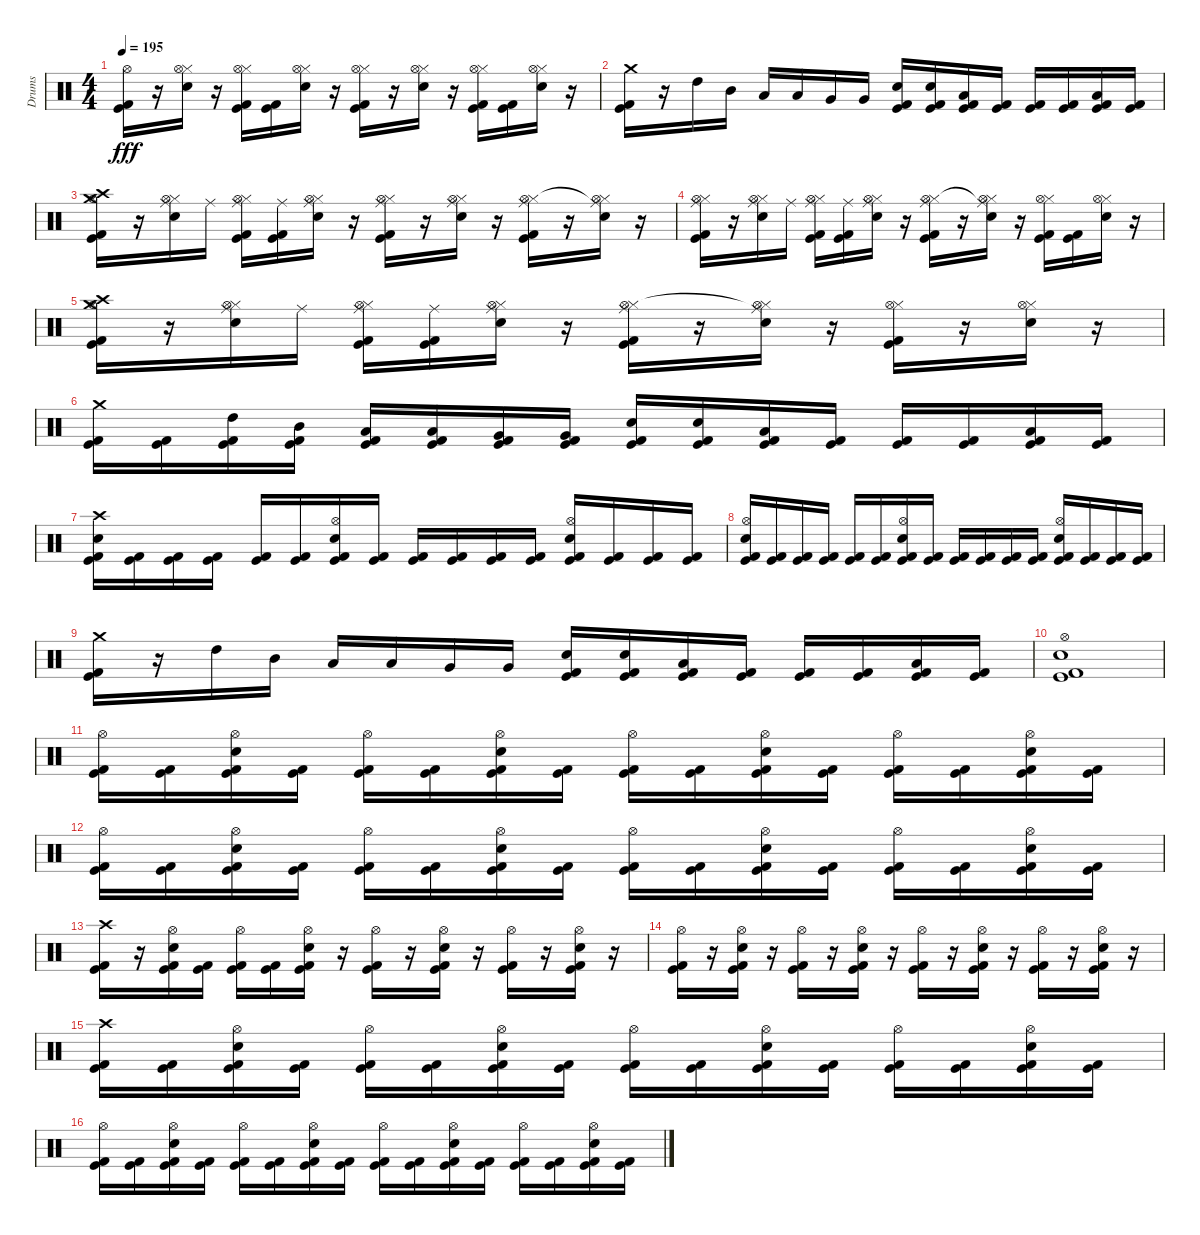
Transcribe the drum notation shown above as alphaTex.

\track ("Drums" "Drums") {instrument percussion}
\staff {score}
\articulation defaults
\ts (4 4)
\tempo 195
\clef neutral
\ks c
("Kick (hit) 2" "Kick (hit)" "Hi-Hat (open)").16{dy fff} r.16 ("Snare (hit) 2" "Hi-Hat (closed)" "Hi-Hat (open)").16 r.16 ("Kick (hit) 2" "Kick (hit)" "Hi-Hat (closed)" "Hi-Hat (open)").16 ("Kick (hit) 2" "Kick (hit)").16 ("Snare (hit) 2" "Hi-Hat (closed)" "Hi-Hat (open)").16 r.16 ("Kick (hit) 2" "Kick (hit)" "Hi-Hat (closed)" "Hi-Hat (open)").16 r.16 ("Snare (hit) 2" "Hi-Hat (closed)" "Hi-Hat (open)").16 r.16 ("Kick (hit) 2" "Kick (hit)" "Hi-Hat (closed)" "Hi-Hat (open)").16 ("Kick (hit) 2" "Kick (hit)").16 ("Snare (hit) 2" "Hi-Hat (closed)" "Hi-Hat (open)").16 r.16 |
("Kick (hit) 2" "Kick (hit)" "Crash medium (hit)").16 r.16 "High Tom (hit)".16 "Mid Tom (hit)".16 "Low Tom (hit)".16 "Low Tom (hit)".16 "Very Low Tom (hit)".16 "Very Low Tom (hit)".16 ("Kick (hit) 2" "Kick (hit)" "Snare (hit) 2").16 ("Kick (hit) 2" "Kick (hit)" "Snare (hit) 2").16 ("Kick (hit) 2" "Kick (hit)" "Low Tom (hit)").16 ("Kick (hit) 2" "Kick (hit)").16 ("Kick (hit) 2" "Kick (hit)").16 ("Kick (hit) 2" "Kick (hit)").16 ("Kick (hit) 2" "Kick (hit)" "Low Floor Tom (hit)").16 ("Kick (hit) 2" "Kick (hit)").16 |
("Kick (hit) 2" "Kick (hit)" "Crash high (hit)" "Hi-Hat (open)" "Crash medium (hit)").16 r.16 ("Snare (hit) 2" "Hi-Hat (closed)" "Ride (middle)" "Hi-Hat (open)").16 "Ride (middle)".16 ("Kick (hit) 2" "Kick (hit)" "Hi-Hat (closed)" "Ride (middle)" "Hi-Hat (open)").16 ("Kick (hit) 2" "Kick (hit)" "Ride (middle)").16 ("Snare (hit) 2" "Hi-Hat (closed)" "Ride (middle)" "Hi-Hat (open)").16 r.16 ("Kick (hit) 2" "Kick (hit)" "Hi-Hat (closed)" "Ride (middle)" "Hi-Hat (open)").16 r.16 ("Snare (hit) 2" "Hi-Hat (closed)" "Ride (middle)" "Hi-Hat (open)").16 r.16 ("Kick (hit) 2" "Kick (hit)" "Hi-Hat (closed)" "Ride (middle)" "Hi-Hat (open)").16 r.16 ("Snare (hit) 2" "Hi-Hat (closed)" "Ride (middle)"{t} "Hi-Hat (open)").16 r.16 |
("Kick (hit) 2" "Kick (hit)" "Hi-Hat (closed)" "Ride (middle)" "Hi-Hat (open)").16 r.16 ("Snare (hit) 2" "Hi-Hat (closed)" "Ride (middle)" "Hi-Hat (open)").16 "Ride (middle)".16 ("Kick (hit) 2" "Kick (hit)" "Hi-Hat (closed)" "Ride (middle)" "Hi-Hat (open)").16 ("Kick (hit) 2" "Kick (hit)" "Ride (middle)").16 ("Snare (hit) 2" "Hi-Hat (closed)" "Ride (middle)" "Hi-Hat (open)").16 r.16 ("Kick (hit) 2" "Kick (hit)" "Hi-Hat (closed)" "Ride (middle)" "Hi-Hat (open)").16 r.16 ("Snare (hit) 2" "Hi-Hat (closed)" "Ride (middle)"{t} "Hi-Hat (open)").16 r.16 ("Kick (hit) 2" "Kick (hit)" "Hi-Hat (closed)" "Hi-Hat (open)").16 ("Kick (hit) 2" "Kick (hit)").16 ("Snare (hit) 2" "Hi-Hat (closed)" "Hi-Hat (open)").16 r.16 |
("Kick (hit) 2" "Kick (hit)" "Crash high (hit)" "Hi-Hat (open)" "Crash medium (hit)").16 r.16 ("Snare (hit) 2" "Hi-Hat (closed)" "Ride (middle)" "Hi-Hat (open)").16 "Ride (middle)".16 ("Kick (hit) 2" "Kick (hit)" "Hi-Hat (closed)" "Ride (middle)" "Hi-Hat (open)").16 ("Kick (hit) 2" "Kick (hit)" "Ride (middle)").16 ("Snare (hit) 2" "Hi-Hat (closed)" "Ride (middle)" "Hi-Hat (open)").16 r.16 ("Kick (hit) 2" "Kick (hit)" "Hi-Hat (closed)" "Ride (middle)" "Hi-Hat (open)").16 r.16 ("Snare (hit) 2" "Hi-Hat (closed)" "Ride (middle)"{t} "Hi-Hat (open)").16 r.16 ("Kick (hit) 2" "Kick (hit)" "Hi-Hat (closed)" "Hi-Hat (open)").16 r.16 ("Snare (hit) 2" "Hi-Hat (closed)" "Hi-Hat (open)").16 r.16 |
("Kick (hit) 2" "Kick (hit)" "Crash medium (hit)").16 ("Kick (hit) 2" "Kick (hit)").16 ("Kick (hit) 2" "Kick (hit)" "High Tom (hit)").16 ("Kick (hit) 2" "Kick (hit)" "Mid Tom (hit)").16 ("Kick (hit) 2" "Kick (hit)" "Low Tom (hit)").16 ("Kick (hit) 2" "Kick (hit)" "Low Tom (hit)").16 ("Kick (hit) 2" "Kick (hit)" "Very Low Tom (hit)").16 ("Kick (hit) 2" "Kick (hit)" "Very Low Tom (hit)").16 ("Kick (hit) 2" "Kick (hit)" "Snare (hit) 2").16 ("Kick (hit) 2" "Kick (hit)" "Snare (hit) 2").16 ("Kick (hit) 2" "Kick (hit)" "Low Tom (hit)").16 ("Kick (hit) 2" "Kick (hit)").16 ("Kick (hit) 2" "Kick (hit)").16 ("Kick (hit) 2" "Kick (hit)").16 ("Kick (hit) 2" "Kick (hit)" "Low Floor Tom (hit)").16 ("Kick (hit) 2" "Kick (hit)").16 |
("Kick (hit) 2" "Kick (hit)" "Snare (hit) 2" "Crash high (hit)").16 ("Kick (hit) 2" "Kick (hit)").16 ("Kick (hit) 2" "Kick (hit)").16 ("Kick (hit) 2" "Kick (hit)").16 ("Kick (hit) 2" "Kick (hit)").16 ("Kick (hit) 2" "Kick (hit)").16 ("Kick (hit) 2" "Kick (hit)" "Snare (hit) 2" "Hi-Hat (open)").16 ("Kick (hit) 2" "Kick (hit)").16 ("Kick (hit) 2" "Kick (hit)").16 ("Kick (hit) 2" "Kick (hit)").16 ("Kick (hit) 2" "Kick (hit)").16 ("Kick (hit) 2" "Kick (hit)").16 ("Kick (hit) 2" "Kick (hit)" "Snare (hit) 2" "Hi-Hat (open)").16 ("Kick (hit) 2" "Kick (hit)").16 ("Kick (hit) 2" "Kick (hit)").16 ("Kick (hit) 2" "Kick (hit)").16 |
("Kick (hit) 2" "Kick (hit)" "Snare (hit) 2" "Hi-Hat (open)").16 ("Kick (hit) 2" "Kick (hit)").16 ("Kick (hit) 2" "Kick (hit)").16 ("Kick (hit) 2" "Kick (hit)").16 ("Kick (hit) 2" "Kick (hit)").16 ("Kick (hit) 2" "Kick (hit)").16 ("Kick (hit) 2" "Kick (hit)" "Snare (hit) 2" "Hi-Hat (open)").16 ("Kick (hit) 2" "Kick (hit)").16 ("Kick (hit) 2" "Kick (hit)").16 ("Kick (hit) 2" "Kick (hit)").16 ("Kick (hit) 2" "Kick (hit)").16 ("Kick (hit) 2" "Kick (hit)").16 ("Kick (hit) 2" "Kick (hit)" "Snare (hit) 2" "Hi-Hat (open)").16 ("Kick (hit) 2" "Kick (hit)").16 ("Kick (hit) 2" "Kick (hit)").16 ("Kick (hit) 2" "Kick (hit)").16 |
("Kick (hit) 2" "Kick (hit)" "Crash medium (hit)").16 r.16 "High Tom (hit)".16 "Mid Tom (hit)".16 "Low Tom (hit)".16 "Low Tom (hit)".16 "Very Low Tom (hit)".16 "Very Low Tom (hit)".16 ("Kick (hit) 2" "Kick (hit)" "Snare (hit) 2").16 ("Kick (hit) 2" "Kick (hit)" "Snare (hit) 2").16 ("Kick (hit) 2" "Kick (hit)" "Low Tom (hit)").16 ("Kick (hit) 2" "Kick (hit)").16 ("Kick (hit) 2" "Kick (hit)").16 ("Kick (hit) 2" "Kick (hit)").16 ("Kick (hit) 2" "Kick (hit)" "Low Floor Tom (hit)").16 ("Kick (hit) 2" "Kick (hit)").16 |
("Kick (hit) 2" "Kick (hit)" "Snare (hit) 2" "Hi-Hat (open)").1 |
("Kick (hit) 2" "Kick (hit)" "Hi-Hat (open)").16 ("Kick (hit) 2" "Kick (hit)").16 ("Kick (hit) 2" "Kick (hit)" "Snare (hit) 2" "Hi-Hat (open)").16 ("Kick (hit) 2" "Kick (hit)").16 ("Kick (hit) 2" "Kick (hit)" "Hi-Hat (open)").16 ("Kick (hit) 2" "Kick (hit)").16 ("Kick (hit) 2" "Kick (hit)" "Snare (hit) 2" "Hi-Hat (open)").16 ("Kick (hit) 2" "Kick (hit)").16 ("Kick (hit) 2" "Kick (hit)" "Hi-Hat (open)").16 ("Kick (hit) 2" "Kick (hit)").16 ("Kick (hit) 2" "Kick (hit)" "Snare (hit) 2" "Hi-Hat (open)").16 ("Kick (hit) 2" "Kick (hit)").16 ("Kick (hit) 2" "Kick (hit)" "Hi-Hat (open)").16 ("Kick (hit) 2" "Kick (hit)").16 ("Kick (hit) 2" "Kick (hit)" "Snare (hit) 2" "Hi-Hat (open)").16 ("Kick (hit) 2" "Kick (hit)").16 |
("Kick (hit) 2" "Kick (hit)" "Hi-Hat (open)").16 ("Kick (hit) 2" "Kick (hit)").16 ("Kick (hit) 2" "Kick (hit)" "Snare (hit) 2" "Hi-Hat (open)").16 ("Kick (hit) 2" "Kick (hit)").16 ("Kick (hit) 2" "Kick (hit)" "Hi-Hat (open)").16 ("Kick (hit) 2" "Kick (hit)").16 ("Kick (hit) 2" "Kick (hit)" "Snare (hit) 2" "Hi-Hat (open)").16 ("Kick (hit) 2" "Kick (hit)").16 ("Kick (hit) 2" "Kick (hit)" "Hi-Hat (open)").16 ("Kick (hit) 2" "Kick (hit)").16 ("Kick (hit) 2" "Kick (hit)" "Snare (hit) 2" "Hi-Hat (open)").16 ("Kick (hit) 2" "Kick (hit)").16 ("Kick (hit) 2" "Kick (hit)" "Hi-Hat (open)").16 ("Kick (hit) 2" "Kick (hit)").16 ("Kick (hit) 2" "Kick (hit)" "Snare (hit) 2" "Hi-Hat (open)").16 ("Kick (hit) 2" "Kick (hit)").16 |
("Kick (hit) 2" "Kick (hit)" "Crash high (hit)").16 r.16 ("Kick (hit) 2" "Kick (hit)" "Snare (hit) 2" "Hi-Hat (open)").16 ("Kick (hit) 2" "Kick (hit)").16 ("Kick (hit) 2" "Kick (hit)" "Hi-Hat (open)").16 ("Kick (hit) 2" "Kick (hit)").16 ("Kick (hit) 2" "Kick (hit)" "Snare (hit) 2" "Hi-Hat (open)").16 r.16 ("Kick (hit) 2" "Kick (hit)" "Hi-Hat (open)").16 r.16 ("Kick (hit) 2" "Kick (hit)" "Snare (hit) 2" "Hi-Hat (open)").16 r.16 ("Kick (hit) 2" "Kick (hit)" "Hi-Hat (open)").16 r.16 ("Kick (hit) 2" "Kick (hit)" "Snare (hit) 2" "Hi-Hat (open)").16 r.16 |
("Kick (hit) 2" "Kick (hit)" "Hi-Hat (open)").16 r.16 ("Kick (hit) 2" "Kick (hit)" "Snare (hit) 2" "Hi-Hat (open)").16 r.16 ("Kick (hit) 2" "Kick (hit)" "Hi-Hat (open)").16 r.16 ("Kick (hit) 2" "Kick (hit)" "Snare (hit) 2" "Hi-Hat (open)").16 r.16 ("Kick (hit) 2" "Kick (hit)" "Hi-Hat (open)").16 r.16 ("Kick (hit) 2" "Kick (hit)" "Snare (hit) 2" "Hi-Hat (open)").16 r.16 ("Kick (hit) 2" "Kick (hit)" "Hi-Hat (open)").16 r.16 ("Kick (hit) 2" "Kick (hit)" "Snare (hit) 2" "Hi-Hat (open)").16 r.16 |
("Kick (hit) 2" "Kick (hit)" "Crash high (hit)").16 ("Kick (hit) 2" "Kick (hit)").16 ("Kick (hit) 2" "Kick (hit)" "Snare (hit) 2" "Hi-Hat (open)").16 ("Kick (hit) 2" "Kick (hit)").16 ("Kick (hit) 2" "Kick (hit)" "Hi-Hat (open)").16 ("Kick (hit) 2" "Kick (hit)").16 ("Kick (hit) 2" "Kick (hit)" "Snare (hit) 2" "Hi-Hat (open)").16 ("Kick (hit) 2" "Kick (hit)").16 ("Kick (hit) 2" "Kick (hit)" "Hi-Hat (open)").16 ("Kick (hit) 2" "Kick (hit)").16 ("Kick (hit) 2" "Kick (hit)" "Snare (hit) 2" "Hi-Hat (open)").16 ("Kick (hit) 2" "Kick (hit)").16 ("Kick (hit) 2" "Kick (hit)" "Hi-Hat (open)").16 ("Kick (hit) 2" "Kick (hit)").16 ("Kick (hit) 2" "Kick (hit)" "Snare (hit) 2" "Hi-Hat (open)").16 ("Kick (hit) 2" "Kick (hit)").16 |
("Kick (hit) 2" "Kick (hit)" "Hi-Hat (open)").16 ("Kick (hit) 2" "Kick (hit)").16 ("Kick (hit) 2" "Kick (hit)" "Snare (hit) 2" "Hi-Hat (open)").16 ("Kick (hit) 2" "Kick (hit)").16 ("Kick (hit) 2" "Kick (hit)" "Hi-Hat (open)").16 ("Kick (hit) 2" "Kick (hit)").16 ("Kick (hit) 2" "Kick (hit)" "Snare (hit) 2" "Hi-Hat (open)").16 ("Kick (hit) 2" "Kick (hit)").16 ("Kick (hit) 2" "Kick (hit)" "Hi-Hat (open)").16 ("Kick (hit) 2" "Kick (hit)").16 ("Kick (hit) 2" "Kick (hit)" "Snare (hit) 2" "Hi-Hat (open)").16 ("Kick (hit) 2" "Kick (hit)").16 ("Kick (hit) 2" "Kick (hit)" "Hi-Hat (open)").16 ("Kick (hit) 2" "Kick (hit)").16 ("Kick (hit) 2" "Kick (hit)" "Snare (hit) 2" "Hi-Hat (open)").16 ("Kick (hit) 2" "Kick (hit)").16
